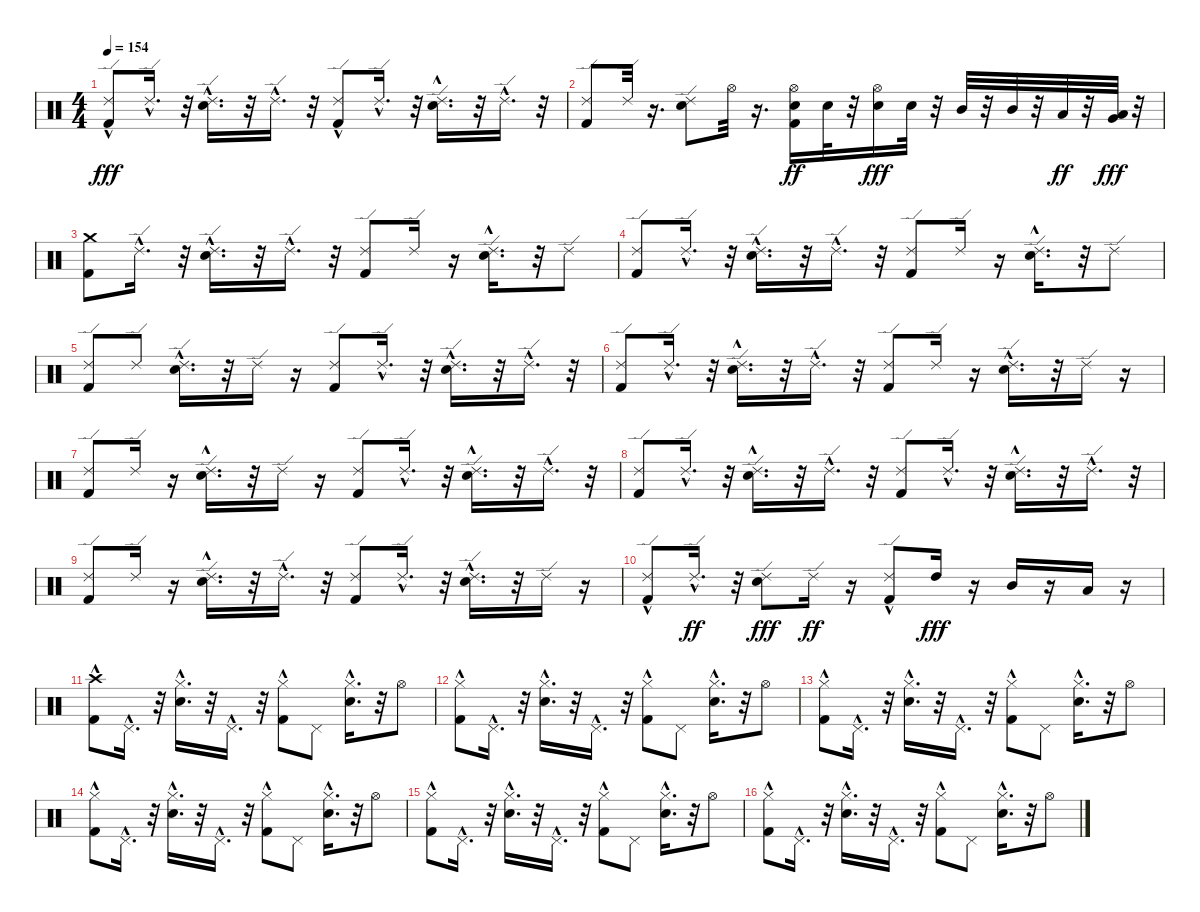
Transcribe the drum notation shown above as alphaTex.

\track "" {instrument percussion}
\staff {score}
\articulation defaults
\ts (4 4)
\tempo 154
\clef neutral
\ks c
("Kick (hit) 2" "Ride (edge) 2"{hac}).8{dy fff} "Ride (edge) 2"{hac}.16{d} r.32 ("Electric Snare (hit)"{hac} "Ride (edge) 2").16{d} r.32 "Ride (edge) 2"{hac}.16{d} r.32 ("Ride (edge) 2"{hac} "Kick (hit) 2").8 "Ride (edge) 2"{hac}.16{d} r.32 ("Ride (edge) 2" "Electric Snare (hit)"{hac}).16{d} r.32 "Ride (edge) 2"{hac}.16{d} r.32 |
("Kick (hit) 2" "Ride (edge) 2").8 "Ride (edge) 2".32 r.16{d} ("Electric Snare (hit)" "Ride (edge) 2").8 "Hi-Hat (open)".32 r.16{d} ("Kick (hit) 2" "Hi-Hat (open)" "Electric Snare (hit)").16{dy ff} "Electric Snare (hit)".32 r.32 ("Electric Snare (hit)" "Hi-Hat (open)").16{dy fff} "Electric Snare (hit)".32 r.32 "Mid Tom (hit)".32 r.32 "Mid Tom (hit)".32 r.32 "Low Tom (hit)".32{dy ff} r.32 ("Very Low Tom (hit)" "Low Tom (hit)").32{dy fff} r.32 |
("Kick (hit) 2" "Crash medium (hit)").8 "Ride (edge) 2"{hac}.16{d} r.32 ("Electric Snare (hit)"{hac} "Ride (edge) 2").16{d} r.32 "Ride (edge) 2"{hac}.16{d} r.32 ("Kick (hit) 2" "Ride (edge) 2").8 "Ride (edge) 2".16 r.16 ("Ride (edge) 2" "Electric Snare (hit)"{hac}).16{d} r.32 "Ride (edge) 2".8 |
("Kick (hit) 2" "Ride (edge) 2").8 "Ride (edge) 2"{hac}.16{d} r.32 ("Electric Snare (hit)"{hac} "Ride (edge) 2").16{d} r.32 "Ride (edge) 2"{hac}.16{d} r.32 ("Kick (hit) 2" "Ride (edge) 2").8 "Ride (edge) 2".16 r.16 ("Ride (edge) 2" "Electric Snare (hit)"{hac}).16{d} r.32 "Ride (edge) 2".8 |
("Ride (edge) 2" "Kick (hit) 2").8 "Ride (edge) 2".8 ("Electric Snare (hit)"{hac} "Ride (edge) 2").16{d} r.32 "Ride (edge) 2".16 r.16 ("Ride (edge) 2" "Kick (hit) 2").8 "Ride (edge) 2"{hac}.16{d} r.32 ("Electric Snare (hit)"{hac} "Ride (edge) 2").16{d} r.32 "Ride (edge) 2"{hac}.16{d} r.32 |
("Ride (edge) 2" "Kick (hit) 2").8 "Ride (edge) 2"{hac}.16{d} r.32 ("Ride (edge) 2" "Electric Snare (hit)"{hac}).16{d} r.32 "Ride (edge) 2"{hac}.16{d} r.32 ("Kick (hit) 2" "Ride (edge) 2").8 "Ride (edge) 2".16 r.16 ("Electric Snare (hit)"{hac} "Ride (edge) 2").16{d} r.32 "Ride (edge) 2".16 r.16 |
("Kick (hit) 2" "Ride (edge) 2").8 "Ride (edge) 2".16 r.16 ("Ride (edge) 2" "Electric Snare (hit)"{hac}).16{d} r.32 "Ride (edge) 2".16 r.16 ("Ride (edge) 2" "Kick (hit) 2").8 "Ride (edge) 2"{hac}.16{d} r.32 ("Ride (edge) 2" "Electric Snare (hit)"{hac}).16{d} r.32 "Ride (edge) 2"{hac}.16{d} r.32 |
("Ride (edge) 2" "Kick (hit) 2").8 "Ride (edge) 2"{hac}.16{d} r.32 ("Ride (edge) 2" "Electric Snare (hit)"{hac}).16{d} r.32 "Ride (edge) 2"{hac}.16{d} r.32 ("Ride (edge) 2" "Kick (hit) 2").8 "Ride (edge) 2"{hac}.16{d} r.32 ("Ride (edge) 2" "Electric Snare (hit)"{hac}).16{d} r.32 "Ride (edge) 2"{hac}.16{d} r.32 |
("Ride (edge) 2" "Kick (hit) 2").8 "Ride (edge) 2".16 r.16 ("Ride (edge) 2" "Electric Snare (hit)"{hac}).16{d} r.32 "Ride (edge) 2"{hac}.16{d} r.32 ("Ride (edge) 2" "Kick (hit) 2").8 "Ride (edge) 2"{hac}.16{d} r.32 ("Ride (edge) 2"{hac} "Electric Snare (hit)"{hac}).16{d} r.32 "Ride (edge) 2".16 r.16 |
("Ride (edge) 2"{hac} "Kick (hit) 2").8 "Ride (edge) 2"{hac}.16{d dy ff} r.32 ("Electric Snare (hit)" "Ride (edge) 2").8{dy fff} "Ride (edge) 2".16{dy ff} r.16 ("Kick (hit) 2" "Ride (edge) 2"{hac}).8 "High Tom (hit)".16{dy fff} r.16 "Mid Tom (hit)".16 r.16 "Low Tom (hit)".16 r.16 |
("Kick (hit) 2" "Crash high (hit)"{hac}).8 "Pedal Hi-Hat (hit)"{hac}.16{d} r.32 ("Electric Snare (hit)"{hac} "Hi-Hat (closed)").16{d} r.32 "Pedal Hi-Hat (hit)"{hac}.16{d} r.32 ("Hi-Hat (closed)"{hac} "Kick (hit) 2").8 "Pedal Hi-Hat (hit)".8 ("Electric Snare (hit)"{hac} "Hi-Hat (closed)").16{d} r.32 "Hi-Hat (open)".8 |
("Kick (hit) 2" "Hi-Hat (closed)"{hac}).8 "Pedal Hi-Hat (hit)"{hac}.16{d} r.32 ("Electric Snare (hit)"{hac} "Hi-Hat (closed)").16{d} r.32 "Pedal Hi-Hat (hit)"{hac}.16{d} r.32 ("Hi-Hat (closed)"{hac} "Kick (hit) 2").8 "Pedal Hi-Hat (hit)".8 ("Electric Snare (hit)"{hac} "Hi-Hat (closed)").16{d} r.32 "Hi-Hat (open)".8 |
("Kick (hit) 2" "Hi-Hat (closed)"{hac}).8 "Pedal Hi-Hat (hit)"{hac}.16{d} r.32 ("Electric Snare (hit)"{hac} "Hi-Hat (closed)").16{d} r.32 "Pedal Hi-Hat (hit)"{hac}.16{d} r.32 ("Hi-Hat (closed)"{hac} "Kick (hit) 2").8 "Pedal Hi-Hat (hit)".8 ("Electric Snare (hit)"{hac} "Hi-Hat (closed)").16{d} r.32 "Hi-Hat (open)".8 |
("Kick (hit) 2" "Hi-Hat (closed)"{hac}).8 "Pedal Hi-Hat (hit)"{hac}.16{d} r.32 ("Electric Snare (hit)"{hac} "Hi-Hat (closed)").16{d} r.32 "Pedal Hi-Hat (hit)"{hac}.16{d} r.32 ("Hi-Hat (closed)"{hac} "Kick (hit) 2").8 "Pedal Hi-Hat (hit)".8 ("Electric Snare (hit)"{hac} "Hi-Hat (closed)").16{d} r.32 "Hi-Hat (open)".8 |
("Kick (hit) 2" "Hi-Hat (closed)"{hac}).8 "Pedal Hi-Hat (hit)"{hac}.16{d} r.32 ("Electric Snare (hit)"{hac} "Hi-Hat (closed)").16{d} r.32 "Pedal Hi-Hat (hit)"{hac}.16{d} r.32 ("Hi-Hat (closed)"{hac} "Kick (hit) 2").8 "Pedal Hi-Hat (hit)".8 ("Electric Snare (hit)"{hac} "Hi-Hat (closed)").16{d} r.32 "Hi-Hat (open)".8 |
("Kick (hit) 2" "Hi-Hat (closed)"{hac}).8 "Pedal Hi-Hat (hit)"{hac}.16{d} r.32 ("Electric Snare (hit)"{hac} "Hi-Hat (closed)").16{d} r.32 "Pedal Hi-Hat (hit)"{hac}.16{d} r.32 ("Hi-Hat (closed)"{hac} "Kick (hit) 2").8 "Pedal Hi-Hat (hit)".8 ("Electric Snare (hit)"{hac} "Hi-Hat (closed)").16{d} r.32 "Hi-Hat (open)".8
